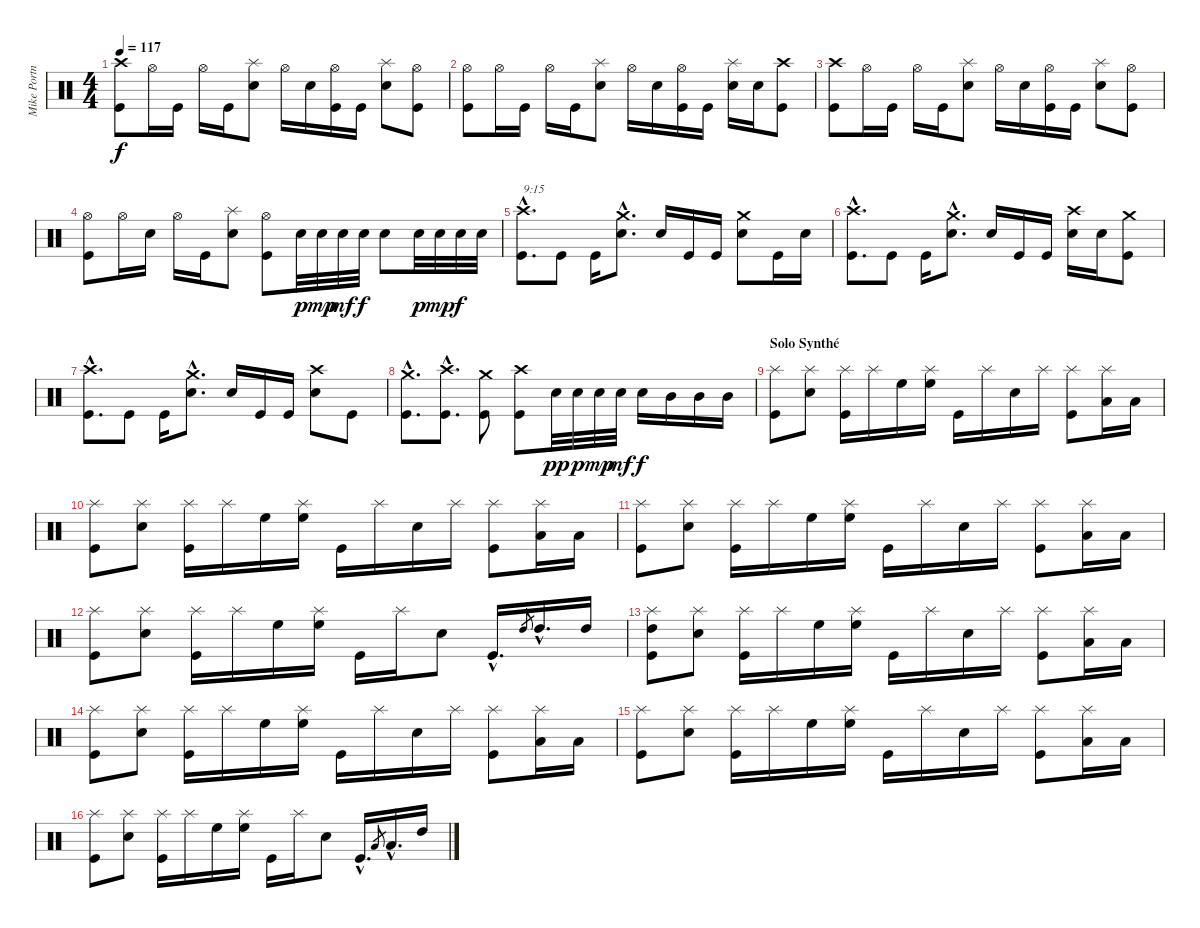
\track ("Mike Portnoy" "Mike Portn") {instrument percussion}
\staff {score}
\articulation defaults
\ts (4 4)
\tempo 117
\clef neutral
\ks c
("Crash high (hit)" "Kick (hit)").8{dy f} "Hi-Hat (open)".16 "Kick (hit)".16 "Hi-Hat (open)".16 "Kick (hit)".16 ("Splash (hit)" "Snare (hit) 2").8 "Hi-Hat (open)".16 "Snare (hit) 2".16 ("Hi-Hat (open)" "Kick (hit)").16 "Kick (hit)".16 ("Splash (hit)" "Snare (hit) 2").8 ("Hi-Hat (open)" "Kick (hit)").8 |
("Hi-Hat (open)" "Kick (hit)").8 "Hi-Hat (open)".16 "Kick (hit)".16 "Hi-Hat (open)".16 "Kick (hit)".16 ("Splash (hit)" "Snare (hit) 2").8 "Hi-Hat (open)".16 "Snare (hit) 2".16 ("Hi-Hat (open)" "Kick (hit)").16 "Kick (hit)".16 ("Splash (hit)" "Snare (hit) 2").16 "Snare (hit) 2".16 ("Crash high (hit)" "Kick (hit)").8 |
("Crash high (hit)" "Kick (hit)").8 "Hi-Hat (open)".16 "Kick (hit)".16 "Hi-Hat (open)".16 "Kick (hit)".16 ("Splash (hit)" "Snare (hit) 2").8 "Hi-Hat (open)".16 "Snare (hit) 2".16 ("Hi-Hat (open)" "Kick (hit)").16 "Kick (hit)".16 ("Splash (hit)" "Snare (hit) 2").8 ("Hi-Hat (open)" "Kick (hit)").8 |
("Hi-Hat (open)" "Kick (hit)").8 "Hi-Hat (open)".16 "Snare (hit) 2".16 "Hi-Hat (open)".16 "Kick (hit)".16 ("Splash (hit)" "Snare (hit) 2").8 ("Hi-Hat (open)" "Kick (hit)").8 "Snare (hit) 2".32{dy p} "Snare (hit) 2".32{dy mp} "Snare (hit) 2".32{dy mf} "Snare (hit) 2".32{dy f} "Snare (hit) 2".8 "Snare (hit) 2".32{dy p} "Snare (hit) 2".32{dy mp} "Snare (hit) 2".32{dy f} "Snare (hit) 2".32 |
("Crash high (hit)"{hac} "Kick (hit)"{hac}).8{d txt "9:15"} "Kick (hit)".8 "Kick (hit)".16 ("Crash medium (hit)"{hac} "Snare (hit) 2"{hac}).8{d} "Snare (hit) 2".16 "Kick (hit)".16 "Kick (hit)".16 ("Crash medium (hit)" "Snare (hit) 2").8 "Kick (hit)".16 "Snare (hit) 2".16 |
("Crash high (hit)"{hac} "Kick (hit)"{hac}).8{d} "Kick (hit)".8 "Kick (hit)".16 ("Crash medium (hit)"{hac} "Snare (hit) 2"{hac}).8{d} "Snare (hit) 2".16 "Kick (hit)".16 "Kick (hit)".16 ("Crash high (hit)" "Snare (hit) 2").16 "Snare (hit) 2".16 ("Crash medium (hit)" "Kick (hit)").8 |
("Crash high (hit)"{hac} "Kick (hit)"{hac}).8{d} "Kick (hit)".8 "Kick (hit)".16 ("Crash medium (hit)"{hac} "Snare (hit) 2"{hac}).8{d} "Snare (hit) 2".16 "Kick (hit)".16 "Kick (hit)".16 ("Crash high (hit)" "Snare (hit) 2").8 "Kick (hit)".8 |
("Crash medium (hit)"{hac} "Kick (hit)"{hac}).8{d} ("Crash high (hit)"{hac} "Kick (hit)"{hac}).8{d} ("Crash medium (hit)" "Kick (hit)").8 ("Crash high (hit)" "Kick (hit)").8 "Snare (hit) 2".32{dy pp} "Snare (hit) 2".32{dy p} "Snare (hit) 2".32{dy mp} "Snare (hit) 2".32{dy mf} "Snare (hit) 2".16{dy f} "Mid Tom (hit)".16 "Mid Tom (hit)".16 "Mid Tom (hit)".16 |
\section ("" "Solo Synthé")
("Splash (hit)" "Kick (hit)").8 ("Splash (hit)" "Snare (hit) 2").8 ("Splash (hit)" "Kick (hit)").16 "Splash (hit)".16 "High Floor Tom (hit)".16 ("Splash (hit)" "High Floor Tom (hit)").16 "Kick (hit)".16 "Splash (hit)".16 "Snare (hit) 2".16 "Splash (hit)".16 ("Splash (hit)" "Kick (hit)").8 ("Splash (hit)" "Low Tom (hit)").16 "Low Tom (hit)".16 |
("Splash (hit)" "Kick (hit)").8 ("Splash (hit)" "Snare (hit) 2").8 ("Splash (hit)" "Kick (hit)").16 "Splash (hit)".16 "High Floor Tom (hit)".16 ("Splash (hit)" "High Floor Tom (hit)").16 "Kick (hit)".16 "Splash (hit)".16 "Snare (hit) 2".16 "Splash (hit)".16 ("Splash (hit)" "Kick (hit)").8 ("Splash (hit)" "Low Floor Tom (hit)").16 "Low Floor Tom (hit)".16 |
("Splash (hit)" "Kick (hit)").8 ("Splash (hit)" "Snare (hit) 2").8 ("Splash (hit)" "Kick (hit)").16 "Splash (hit)".16 "High Floor Tom (hit)".16 ("Splash (hit)" "High Floor Tom (hit)").16 "Kick (hit)".16 "Splash (hit)".16 "Snare (hit) 2".16 "Splash (hit)".16 ("Splash (hit)" "Kick (hit)").8 ("Splash (hit)" "Low Tom (hit)").16 "Low Tom (hit)".16 |
("Splash (hit)" "Kick (hit)").8 ("Splash (hit)" "Snare (hit) 2").8 ("Splash (hit)" "Kick (hit)").16 "Splash (hit)".16 "High Floor Tom (hit)".16 ("Splash (hit)" "High Floor Tom (hit)").16 "Kick (hit)".16 "Splash (hit)".16 "Snare (hit) 2".8 "Kick (hit)"{hac}.16{d} "High Tom (hit)".8{gr} "High Tom (hit)"{hac}.16{d} "High Tom (hit)".16 |
("Splash (hit)" "High Tom (hit)" "Kick (hit)").8 ("Splash (hit)" "Snare (hit) 2").8 ("Splash (hit)" "Kick (hit)").16 "Splash (hit)".16 "High Floor Tom (hit)".16 ("Splash (hit)" "High Floor Tom (hit)").16 "Kick (hit)".16 "Splash (hit)".16 "Snare (hit) 2".16 "Splash (hit)".16 ("Splash (hit)" "Kick (hit)").8 ("Splash (hit)" "Low Tom (hit)").16 "Low Tom (hit)".16 |
("Splash (hit)" "Kick (hit)").8 ("Splash (hit)" "Snare (hit) 2").8 ("Splash (hit)" "Kick (hit)").16 "Splash (hit)".16 "High Floor Tom (hit)".16 ("Splash (hit)" "High Floor Tom (hit)").16 "Kick (hit)".16 "Splash (hit)".16 "Snare (hit) 2".16 "Splash (hit)".16 ("Splash (hit)" "Kick (hit)").8 ("Splash (hit)" "Low Floor Tom (hit)").16 "Low Floor Tom (hit)".16 |
("Splash (hit)" "Kick (hit)").8 ("Splash (hit)" "Snare (hit) 2").8 ("Splash (hit)" "Kick (hit)").16 "Splash (hit)".16 "High Floor Tom (hit)".16 ("Splash (hit)" "High Floor Tom (hit)").16 "Kick (hit)".16 "Splash (hit)".16 "Snare (hit) 2".16 "Splash (hit)".16 ("Splash (hit)" "Kick (hit)").8 ("Splash (hit)" "Low Tom (hit)").16 "Low Tom (hit)".16 |
("Splash (hit)" "Kick (hit)").8 ("Splash (hit)" "Snare (hit) 2").8 ("Splash (hit)" "Kick (hit)").16 "Splash (hit)".16 "High Floor Tom (hit)".16 ("Splash (hit)" "High Floor Tom (hit)").16 "Kick (hit)".16 "Splash (hit)".16 "Snare (hit) 2".8 "Kick (hit)"{hac}.16{d} "Low Tom (hit)".8{gr} "Low Tom (hit)"{hac}.16{d} "High Tom (hit)".16
